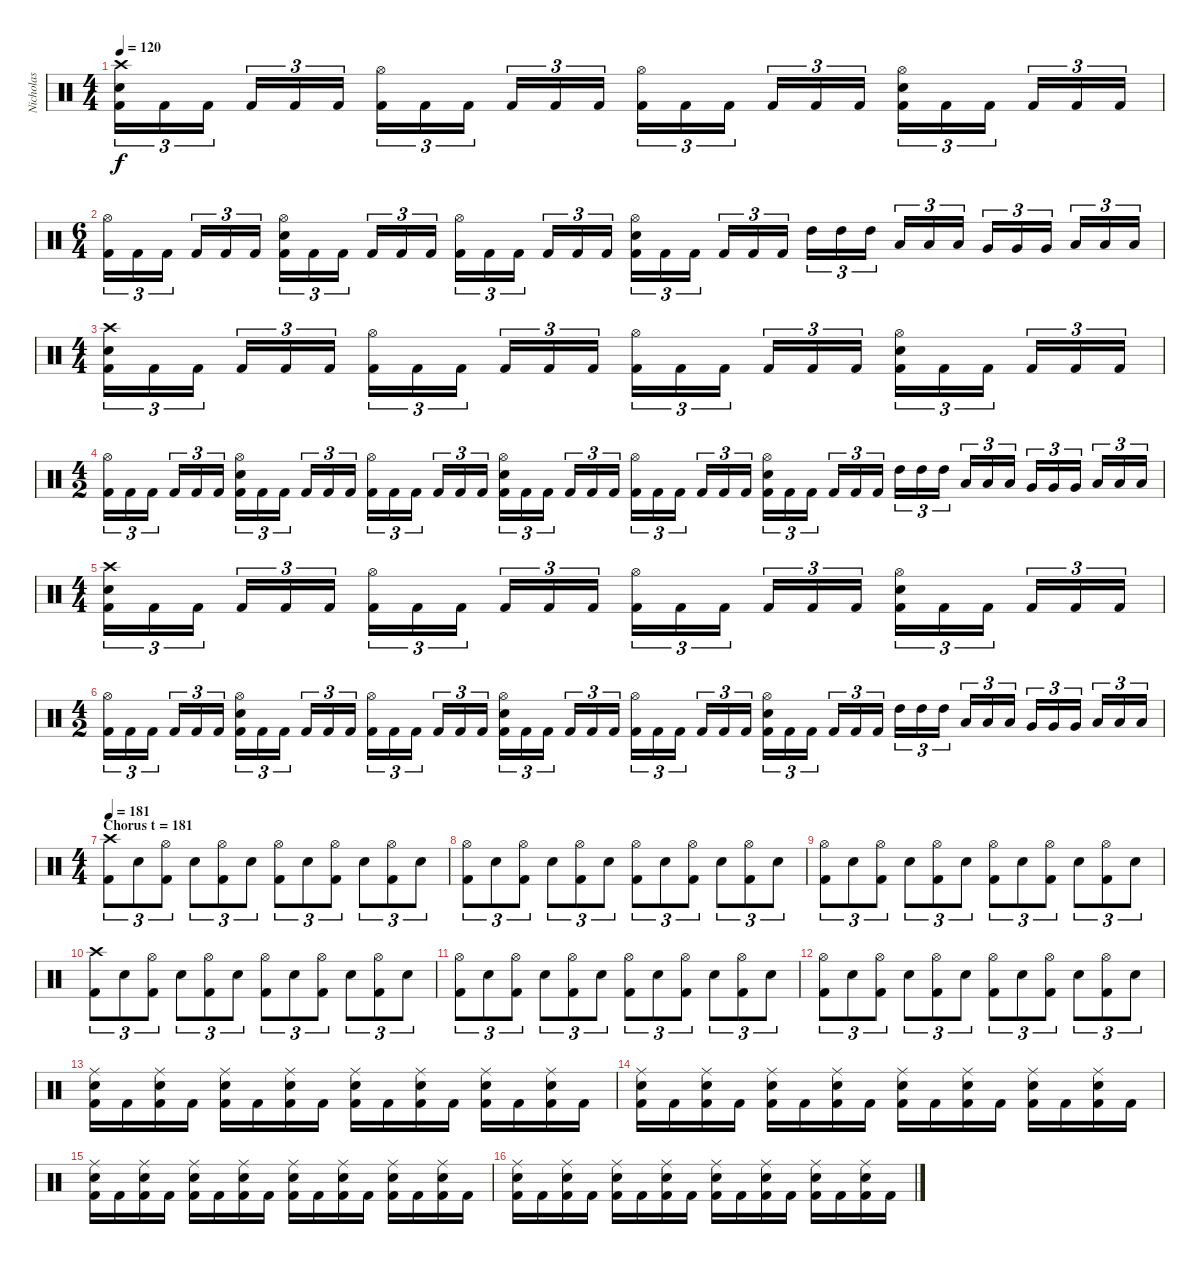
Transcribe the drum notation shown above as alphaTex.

\track ("Nicholas" "Nicholas") {instrument percussion}
\staff {score}
\articulation defaults
\ts (4 4)
\tempo 120
\clef neutral
\ks c
("Crash high (hit)" "Electric Snare (hit)" "Kick (hit) 2").16{tu (3 2) dy f} "Kick (hit) 2".16{tu (3 2)} "Kick (hit) 2".16{tu (3 2)} "Kick (hit) 2".16{tu (3 2)} "Kick (hit) 2".16{tu (3 2)} "Kick (hit) 2".16{tu (3 2)} ("Hi-Hat (open)" "Kick (hit) 2").16{tu (3 2)} "Kick (hit) 2".16{tu (3 2)} "Kick (hit) 2".16{tu (3 2)} "Kick (hit) 2".16{tu (3 2)} "Kick (hit) 2".16{tu (3 2)} "Kick (hit) 2".16{tu (3 2)} ("Hi-Hat (open)" "Kick (hit) 2").16{tu (3 2)} "Kick (hit) 2".16{tu (3 2)} "Kick (hit) 2".16{tu (3 2)} "Kick (hit) 2".16{tu (3 2)} "Kick (hit) 2".16{tu (3 2)} "Kick (hit) 2".16{tu (3 2)} ("Hi-Hat (open)" "Electric Snare (hit)" "Kick (hit) 2").16{tu (3 2)} "Kick (hit) 2".16{tu (3 2)} "Kick (hit) 2".16{tu (3 2)} "Kick (hit) 2".16{tu (3 2)} "Kick (hit) 2".16{tu (3 2)} "Kick (hit) 2".16{tu (3 2)} |
\ts (6 4)
("Hi-Hat (open)" "Kick (hit) 2").16{tu (3 2)} "Kick (hit) 2".16{tu (3 2)} "Kick (hit) 2".16{tu (3 2)} "Kick (hit) 2".16{tu (3 2)} "Kick (hit) 2".16{tu (3 2)} "Kick (hit) 2".16{tu (3 2)} ("Hi-Hat (open)" "Electric Snare (hit)" "Kick (hit) 2").16{tu (3 2)} "Kick (hit) 2".16{tu (3 2)} "Kick (hit) 2".16{tu (3 2)} "Kick (hit) 2".16{tu (3 2)} "Kick (hit) 2".16{tu (3 2)} "Kick (hit) 2".16{tu (3 2)} ("Hi-Hat (open)" "Kick (hit) 2").16{tu (3 2)} "Kick (hit) 2".16{tu (3 2)} "Kick (hit) 2".16{tu (3 2)} "Kick (hit) 2".16{tu (3 2)} "Kick (hit) 2".16{tu (3 2)} "Kick (hit) 2".16{tu (3 2)} ("Hi-Hat (open)" "Electric Snare (hit)" "Kick (hit) 2").16{tu (3 2)} "Kick (hit) 2".16{tu (3 2)} "Kick (hit) 2".16{tu (3 2)} "Kick (hit) 2".16{tu (3 2)} "Kick (hit) 2".16{tu (3 2)} "Kick (hit) 2".16{tu (3 2)} "High Tom (hit)".16{tu (3 2)} "High Tom (hit)".16{tu (3 2)} "High Tom (hit)".16{tu (3 2)} "Low Tom (hit)".16{tu (3 2)} "Low Tom (hit)".16{tu (3 2)} "Low Tom (hit)".16{tu (3 2)} "Very Low Tom (hit)".16{tu (3 2)} "Very Low Tom (hit)".16{tu (3 2)} "Very Low Tom (hit)".16{tu (3 2)} "Low Floor Tom (hit)".16{tu (3 2)} "Low Floor Tom (hit)".16{tu (3 2)} "Low Floor Tom (hit)".16{tu (3 2)} |
\ts (4 4)
("Crash high (hit)" "Electric Snare (hit)" "Kick (hit) 2").16{tu (3 2)} "Kick (hit) 2".16{tu (3 2)} "Kick (hit) 2".16{tu (3 2)} "Kick (hit) 2".16{tu (3 2)} "Kick (hit) 2".16{tu (3 2)} "Kick (hit) 2".16{tu (3 2)} ("Hi-Hat (open)" "Kick (hit) 2").16{tu (3 2)} "Kick (hit) 2".16{tu (3 2)} "Kick (hit) 2".16{tu (3 2)} "Kick (hit) 2".16{tu (3 2)} "Kick (hit) 2".16{tu (3 2)} "Kick (hit) 2".16{tu (3 2)} ("Hi-Hat (open)" "Kick (hit) 2").16{tu (3 2)} "Kick (hit) 2".16{tu (3 2)} "Kick (hit) 2".16{tu (3 2)} "Kick (hit) 2".16{tu (3 2)} "Kick (hit) 2".16{tu (3 2)} "Kick (hit) 2".16{tu (3 2)} ("Hi-Hat (open)" "Electric Snare (hit)" "Kick (hit) 2").16{tu (3 2)} "Kick (hit) 2".16{tu (3 2)} "Kick (hit) 2".16{tu (3 2)} "Kick (hit) 2".16{tu (3 2)} "Kick (hit) 2".16{tu (3 2)} "Kick (hit) 2".16{tu (3 2)} |
\ts (4 2)
("Hi-Hat (open)" "Kick (hit) 2").16{tu (3 2)} "Kick (hit) 2".16{tu (3 2)} "Kick (hit) 2".16{tu (3 2)} "Kick (hit) 2".16{tu (3 2)} "Kick (hit) 2".16{tu (3 2)} "Kick (hit) 2".16{tu (3 2)} ("Hi-Hat (open)" "Electric Snare (hit)" "Kick (hit) 2").16{tu (3 2)} "Kick (hit) 2".16{tu (3 2)} "Kick (hit) 2".16{tu (3 2)} "Kick (hit) 2".16{tu (3 2)} "Kick (hit) 2".16{tu (3 2)} "Kick (hit) 2".16{tu (3 2)} ("Hi-Hat (open)" "Kick (hit) 2").16{tu (3 2)} "Kick (hit) 2".16{tu (3 2)} "Kick (hit) 2".16{tu (3 2)} "Kick (hit) 2".16{tu (3 2)} "Kick (hit) 2".16{tu (3 2)} "Kick (hit) 2".16{tu (3 2)} ("Hi-Hat (open)" "Electric Snare (hit)" "Kick (hit) 2").16{tu (3 2)} "Kick (hit) 2".16{tu (3 2)} "Kick (hit) 2".16{tu (3 2)} "Kick (hit) 2".16{tu (3 2)} "Kick (hit) 2".16{tu (3 2)} "Kick (hit) 2".16{tu (3 2)} ("Hi-Hat (open)" "Kick (hit) 2").16{tu (3 2)} "Kick (hit) 2".16{tu (3 2)} "Kick (hit) 2".16{tu (3 2)} "Kick (hit) 2".16{tu (3 2)} "Kick (hit) 2".16{tu (3 2)} "Kick (hit) 2".16{tu (3 2)} ("Hi-Hat (open)" "Electric Snare (hit)" "Kick (hit) 2").16{tu (3 2)} "Kick (hit) 2".16{tu (3 2)} "Kick (hit) 2".16{tu (3 2)} "Kick (hit) 2".16{tu (3 2)} "Kick (hit) 2".16{tu (3 2)} "Kick (hit) 2".16{tu (3 2)} "High Tom (hit)".16{tu (3 2)} "High Tom (hit)".16{tu (3 2)} "High Tom (hit)".16{tu (3 2)} "Low Tom (hit)".16{tu (3 2)} "Low Tom (hit)".16{tu (3 2)} "Low Tom (hit)".16{tu (3 2)} "Very Low Tom (hit)".16{tu (3 2)} "Very Low Tom (hit)".16{tu (3 2)} "Very Low Tom (hit)".16{tu (3 2)} "Low Floor Tom (hit)".16{tu (3 2)} "Low Floor Tom (hit)".16{tu (3 2)} "Low Floor Tom (hit)".16{tu (3 2)} |
\ts (4 4)
("Crash high (hit)" "Electric Snare (hit)" "Kick (hit) 2").16{tu (3 2)} "Kick (hit) 2".16{tu (3 2)} "Kick (hit) 2".16{tu (3 2)} "Kick (hit) 2".16{tu (3 2)} "Kick (hit) 2".16{tu (3 2)} "Kick (hit) 2".16{tu (3 2)} ("Hi-Hat (open)" "Kick (hit) 2").16{tu (3 2)} "Kick (hit) 2".16{tu (3 2)} "Kick (hit) 2".16{tu (3 2)} "Kick (hit) 2".16{tu (3 2)} "Kick (hit) 2".16{tu (3 2)} "Kick (hit) 2".16{tu (3 2)} ("Hi-Hat (open)" "Kick (hit) 2").16{tu (3 2)} "Kick (hit) 2".16{tu (3 2)} "Kick (hit) 2".16{tu (3 2)} "Kick (hit) 2".16{tu (3 2)} "Kick (hit) 2".16{tu (3 2)} "Kick (hit) 2".16{tu (3 2)} ("Hi-Hat (open)" "Electric Snare (hit)" "Kick (hit) 2").16{tu (3 2)} "Kick (hit) 2".16{tu (3 2)} "Kick (hit) 2".16{tu (3 2)} "Kick (hit) 2".16{tu (3 2)} "Kick (hit) 2".16{tu (3 2)} "Kick (hit) 2".16{tu (3 2)} |
\ts (4 2)
("Hi-Hat (open)" "Kick (hit) 2").16{tu (3 2)} "Kick (hit) 2".16{tu (3 2)} "Kick (hit) 2".16{tu (3 2)} "Kick (hit) 2".16{tu (3 2)} "Kick (hit) 2".16{tu (3 2)} "Kick (hit) 2".16{tu (3 2)} ("Hi-Hat (open)" "Electric Snare (hit)" "Kick (hit) 2").16{tu (3 2)} "Kick (hit) 2".16{tu (3 2)} "Kick (hit) 2".16{tu (3 2)} "Kick (hit) 2".16{tu (3 2)} "Kick (hit) 2".16{tu (3 2)} "Kick (hit) 2".16{tu (3 2)} ("Hi-Hat (open)" "Kick (hit) 2").16{tu (3 2)} "Kick (hit) 2".16{tu (3 2)} "Kick (hit) 2".16{tu (3 2)} "Kick (hit) 2".16{tu (3 2)} "Kick (hit) 2".16{tu (3 2)} "Kick (hit) 2".16{tu (3 2)} ("Hi-Hat (open)" "Electric Snare (hit)" "Kick (hit) 2").16{tu (3 2)} "Kick (hit) 2".16{tu (3 2)} "Kick (hit) 2".16{tu (3 2)} "Kick (hit) 2".16{tu (3 2)} "Kick (hit) 2".16{tu (3 2)} "Kick (hit) 2".16{tu (3 2)} ("Hi-Hat (open)" "Kick (hit) 2").16{tu (3 2)} "Kick (hit) 2".16{tu (3 2)} "Kick (hit) 2".16{tu (3 2)} "Kick (hit) 2".16{tu (3 2)} "Kick (hit) 2".16{tu (3 2)} "Kick (hit) 2".16{tu (3 2)} ("Hi-Hat (open)" "Electric Snare (hit)" "Kick (hit) 2").16{tu (3 2)} "Kick (hit) 2".16{tu (3 2)} "Kick (hit) 2".16{tu (3 2)} "Kick (hit) 2".16{tu (3 2)} "Kick (hit) 2".16{tu (3 2)} "Kick (hit) 2".16{tu (3 2)} "High Tom (hit)".16{tu (3 2)} "High Tom (hit)".16{tu (3 2)} "High Tom (hit)".16{tu (3 2)} "Low Tom (hit)".16{tu (3 2)} "Low Tom (hit)".16{tu (3 2)} "Low Tom (hit)".16{tu (3 2)} "Very Low Tom (hit)".16{tu (3 2)} "Very Low Tom (hit)".16{tu (3 2)} "Very Low Tom (hit)".16{tu (3 2)} "Low Floor Tom (hit)".16{tu (3 2)} "Low Floor Tom (hit)".16{tu (3 2)} "Low Floor Tom (hit)".16{tu (3 2)} |
\ts (4 4)
\section ("" "Chorus t = 181")
\tempo 181
("Crash high (hit)" "Kick (hit) 2").8{tu (3 2)} "Electric Snare (hit)".8{tu (3 2)} ("Hi-Hat (open)" "Kick (hit) 2").8{tu (3 2)} "Electric Snare (hit)".8{tu (3 2)} ("Hi-Hat (open)" "Kick (hit) 2").8{tu (3 2)} "Electric Snare (hit)".8{tu (3 2)} ("Hi-Hat (open)" "Kick (hit) 2").8{tu (3 2)} "Electric Snare (hit)".8{tu (3 2)} ("Hi-Hat (open)" "Kick (hit) 2").8{tu (3 2)} "Electric Snare (hit)".8{tu (3 2)} ("Hi-Hat (open)" "Kick (hit) 2").8{tu (3 2)} "Electric Snare (hit)".8{tu (3 2)} |
("Hi-Hat (open)" "Kick (hit) 2").8{tu (3 2)} "Electric Snare (hit)".8{tu (3 2)} ("Hi-Hat (open)" "Kick (hit) 2").8{tu (3 2)} "Electric Snare (hit)".8{tu (3 2)} ("Hi-Hat (open)" "Kick (hit) 2").8{tu (3 2)} "Electric Snare (hit)".8{tu (3 2)} ("Hi-Hat (open)" "Kick (hit) 2").8{tu (3 2)} "Electric Snare (hit)".8{tu (3 2)} ("Hi-Hat (open)" "Kick (hit) 2").8{tu (3 2)} "Electric Snare (hit)".8{tu (3 2)} ("Hi-Hat (open)" "Kick (hit) 2").8{tu (3 2)} "Electric Snare (hit)".8{tu (3 2)} |
("Hi-Hat (open)" "Kick (hit) 2").8{tu (3 2)} "Electric Snare (hit)".8{tu (3 2)} ("Hi-Hat (open)" "Kick (hit) 2").8{tu (3 2)} "Electric Snare (hit)".8{tu (3 2)} ("Hi-Hat (open)" "Kick (hit) 2").8{tu (3 2)} "Electric Snare (hit)".8{tu (3 2)} ("Hi-Hat (open)" "Kick (hit) 2").8{tu (3 2)} "Electric Snare (hit)".8{tu (3 2)} ("Hi-Hat (open)" "Kick (hit) 2").8{tu (3 2)} "Electric Snare (hit)".8{tu (3 2)} ("Hi-Hat (open)" "Kick (hit) 2").8{tu (3 2)} "Electric Snare (hit)".8{tu (3 2)} |
("Crash high (hit)" "Kick (hit) 2").8{tu (3 2)} "Electric Snare (hit)".8{tu (3 2)} ("Hi-Hat (open)" "Kick (hit) 2").8{tu (3 2)} "Electric Snare (hit)".8{tu (3 2)} ("Hi-Hat (open)" "Kick (hit) 2").8{tu (3 2)} "Electric Snare (hit)".8{tu (3 2)} ("Hi-Hat (open)" "Kick (hit) 2").8{tu (3 2)} "Electric Snare (hit)".8{tu (3 2)} ("Hi-Hat (open)" "Kick (hit) 2").8{tu (3 2)} "Electric Snare (hit)".8{tu (3 2)} ("Hi-Hat (open)" "Kick (hit) 2").8{tu (3 2)} "Electric Snare (hit)".8{tu (3 2)} |
("Hi-Hat (open)" "Kick (hit) 2").8{tu (3 2)} "Electric Snare (hit)".8{tu (3 2)} ("Hi-Hat (open)" "Kick (hit) 2").8{tu (3 2)} "Electric Snare (hit)".8{tu (3 2)} ("Hi-Hat (open)" "Kick (hit) 2").8{tu (3 2)} "Electric Snare (hit)".8{tu (3 2)} ("Hi-Hat (open)" "Kick (hit) 2").8{tu (3 2)} "Electric Snare (hit)".8{tu (3 2)} ("Hi-Hat (open)" "Kick (hit) 2").8{tu (3 2)} "Electric Snare (hit)".8{tu (3 2)} ("Hi-Hat (open)" "Kick (hit) 2").8{tu (3 2)} "Electric Snare (hit)".8{tu (3 2)} |
("Hi-Hat (open)" "Kick (hit) 2").8{tu (3 2)} "Electric Snare (hit)".8{tu (3 2)} ("Hi-Hat (open)" "Kick (hit) 2").8{tu (3 2)} "Electric Snare (hit)".8{tu (3 2)} ("Hi-Hat (open)" "Kick (hit) 2").8{tu (3 2)} "Electric Snare (hit)".8{tu (3 2)} ("Hi-Hat (open)" "Kick (hit) 2").8{tu (3 2)} "Electric Snare (hit)".8{tu (3 2)} ("Hi-Hat (open)" "Kick (hit) 2").8{tu (3 2)} "Electric Snare (hit)".8{tu (3 2)} ("Hi-Hat (open)" "Kick (hit) 2").8{tu (3 2)} "Electric Snare (hit)".8{tu (3 2)} |
("Ride (middle)" "Electric Snare (hit)" "Kick (hit) 2").16 "Kick (hit) 2".16 ("Ride (middle)" "Electric Snare (hit)" "Kick (hit) 2").16 "Kick (hit) 2".16 ("Ride (middle)" "Electric Snare (hit)" "Kick (hit) 2").16 "Kick (hit) 2".16 ("Ride (middle)" "Electric Snare (hit)" "Kick (hit) 2").16 "Kick (hit) 2".16 ("Ride (middle)" "Electric Snare (hit)" "Kick (hit) 2").16 "Kick (hit) 2".16 ("Ride (middle)" "Electric Snare (hit)" "Kick (hit) 2").16 "Kick (hit) 2".16 ("Ride (middle)" "Electric Snare (hit)" "Kick (hit) 2").16 "Kick (hit) 2".16 ("Ride (middle)" "Electric Snare (hit)" "Kick (hit) 2").16 "Kick (hit) 2".16 |
("Ride (middle)" "Electric Snare (hit)" "Kick (hit) 2").16 "Kick (hit) 2".16 ("Ride (middle)" "Electric Snare (hit)" "Kick (hit) 2").16 "Kick (hit) 2".16 ("Ride (middle)" "Electric Snare (hit)" "Kick (hit) 2").16 "Kick (hit) 2".16 ("Ride (middle)" "Electric Snare (hit)" "Kick (hit) 2").16 "Kick (hit) 2".16 ("Ride (middle)" "Electric Snare (hit)" "Kick (hit) 2").16 "Kick (hit) 2".16 ("Ride (middle)" "Electric Snare (hit)" "Kick (hit) 2").16 "Kick (hit) 2".16 ("Ride (middle)" "Electric Snare (hit)" "Kick (hit) 2").16 "Kick (hit) 2".16 ("Ride (middle)" "Electric Snare (hit)" "Kick (hit) 2").16 "Kick (hit) 2".16 |
("Ride (middle)" "Electric Snare (hit)" "Kick (hit) 2").16 "Kick (hit) 2".16 ("Ride (middle)" "Electric Snare (hit)" "Kick (hit) 2").16 "Kick (hit) 2".16 ("Ride (middle)" "Electric Snare (hit)" "Kick (hit) 2").16 "Kick (hit) 2".16 ("Ride (middle)" "Electric Snare (hit)" "Kick (hit) 2").16 "Kick (hit) 2".16 ("Ride (middle)" "Electric Snare (hit)" "Kick (hit) 2").16 "Kick (hit) 2".16 ("Ride (middle)" "Electric Snare (hit)" "Kick (hit) 2").16 "Kick (hit) 2".16 ("Ride (middle)" "Electric Snare (hit)" "Kick (hit) 2").16 "Kick (hit) 2".16 ("Ride (middle)" "Electric Snare (hit)" "Kick (hit) 2").16 "Kick (hit) 2".16 |
("Ride (middle)" "Electric Snare (hit)" "Kick (hit) 2").16 "Kick (hit) 2".16 ("Ride (middle)" "Electric Snare (hit)" "Kick (hit) 2").16 "Kick (hit) 2".16 ("Ride (middle)" "Electric Snare (hit)" "Kick (hit) 2").16 "Kick (hit) 2".16 ("Ride (middle)" "Electric Snare (hit)" "Kick (hit) 2").16 "Kick (hit) 2".16 ("Ride (middle)" "Electric Snare (hit)" "Kick (hit) 2").16 "Kick (hit) 2".16 ("Ride (middle)" "Electric Snare (hit)" "Kick (hit) 2").16 "Kick (hit) 2".16 ("Ride (middle)" "Electric Snare (hit)" "Kick (hit) 2").16 "Kick (hit) 2".16 ("Ride (middle)" "Electric Snare (hit)" "Kick (hit) 2").16 "Kick (hit) 2".16
